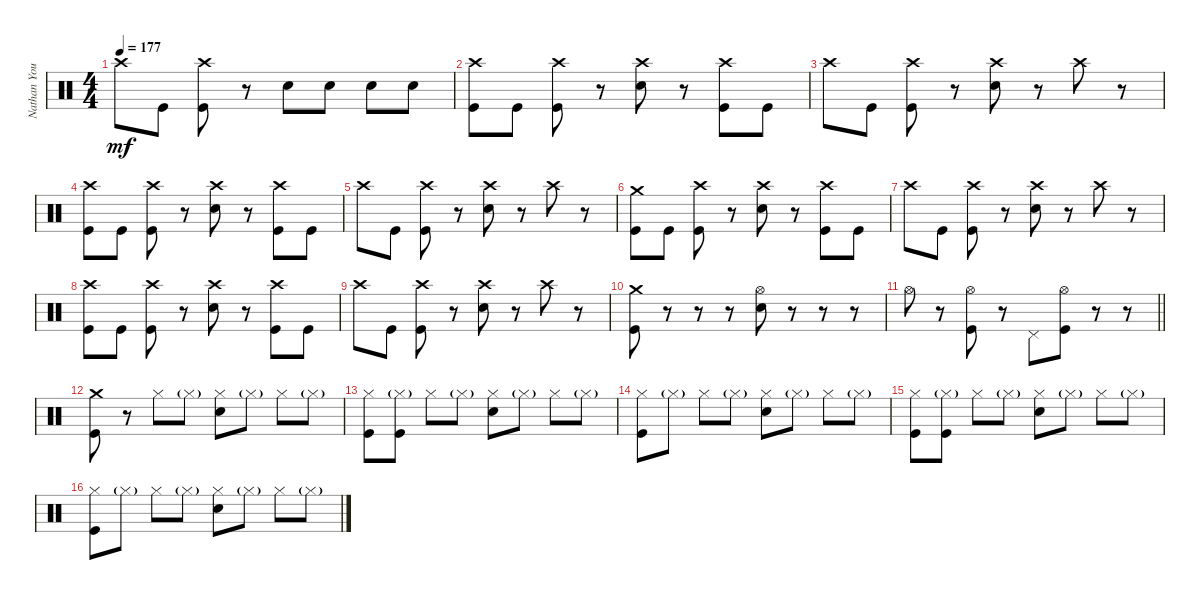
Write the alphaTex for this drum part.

\track ("Nathan Young" "Nathan You") {instrument percussion}
\staff {score}
\articulation defaults
\ts (4 4)
\tempo 177
\clef neutral
\ks c "Crash high (hit)".8{dy mf} "Kick (hit)".8
("Crash high (hit)" "Kick (hit)").8 r.8 "Snare (hit) 2".8 "Snare (hit) 2".8 "Snare (hit) 2".8 "Snare (hit) 2".8 |
("Crash high (hit)" "Kick (hit)").8 "Kick (hit)".8 ("Crash high (hit)" "Kick (hit)").8 r.8 ("Crash high (hit)" "Snare (hit) 2").8 r.8 ("Crash high (hit)" "Kick (hit)").8 "Kick (hit)".8 |
"Crash high (hit)".8 "Kick (hit)".8 ("Crash high (hit)" "Kick (hit)").8 r.8 ("Crash high (hit)" "Snare (hit) 2").8 r.8 "Crash high (hit)".8 r.8 |
("Crash high (hit)" "Kick (hit)").8 "Kick (hit)".8 ("Crash high (hit)" "Kick (hit)").8 r.8 ("Crash high (hit)" "Snare (hit) 2").8 r.8 ("Crash high (hit)" "Kick (hit)").8 "Kick (hit)".8 |
"Crash high (hit)".8 "Kick (hit)".8 ("Crash high (hit)" "Kick (hit)").8 r.8 ("Crash high (hit)" "Snare (hit) 2").8 r.8 "Crash high (hit)".8 r.8 |
("Crash medium (hit)" "Kick (hit)").8 "Kick (hit)".8 ("Crash high (hit)" "Kick (hit)").8 r.8 ("Crash high (hit)" "Snare (hit) 2").8 r.8 ("Crash high (hit)" "Kick (hit)").8 "Kick (hit)".8 |
"Crash high (hit)".8 "Kick (hit)".8 ("Crash high (hit)" "Kick (hit)").8 r.8 ("Crash high (hit)" "Snare (hit) 2").8 r.8 "Crash high (hit)".8 r.8 |
("Crash high (hit)" "Kick (hit)").8 "Kick (hit)".8 ("Crash high (hit)" "Kick (hit)").8 r.8 ("Crash high (hit)" "Snare (hit) 2").8 r.8 ("Crash high (hit)" "Kick (hit)").8 "Kick (hit)".8 |
"Crash high (hit)".8 "Kick (hit)".8 ("Crash high (hit)" "Kick (hit)").8 r.8 ("Crash high (hit)" "Snare (hit) 2").8 r.8 "Crash high (hit)".8 r.8 |
("Crash medium (hit)" "Kick (hit)").8 r.8 r.8 r.8 ("Hi-Hat (open)" "Snare (hit) 2").8 r.8 r.8 r.8 |
\barLineRight lightlight "Hi-Hat (open)".8
r.8 ("Hi-Hat (open)" "Kick (hit)").8 r.8 "Pedal Hi-Hat (hit)".8 ("Hi-Hat (open)" "Kick (hit)").8 r.8 r.8 |
("Crash medium (hit)" "Kick (hit)").8 r.8 "Hi-Hat (closed)".8 "Hi-Hat (closed)"{g}.8 ("Hi-Hat (closed)" "Snare (hit) 2").8 "Hi-Hat (closed)"{g}.8 "Hi-Hat (closed)".8 "Hi-Hat (closed)"{g}.8 |
("Hi-Hat (closed)" "Kick (hit)").8 ("Hi-Hat (closed)"{g} "Kick (hit)").8 "Hi-Hat (closed)".8 "Hi-Hat (closed)"{g}.8 ("Hi-Hat (closed)" "Snare (hit) 2").8 "Hi-Hat (closed)"{g}.8 "Hi-Hat (closed)".8 "Hi-Hat (closed)"{g}.8 |
("Hi-Hat (closed)" "Kick (hit)").8 "Hi-Hat (closed)"{g}.8 "Hi-Hat (closed)".8 "Hi-Hat (closed)"{g}.8 ("Hi-Hat (closed)" "Snare (hit) 2").8 "Hi-Hat (closed)"{g}.8 "Hi-Hat (closed)".8 "Hi-Hat (closed)"{g}.8 |
("Hi-Hat (closed)" "Kick (hit)").8 ("Hi-Hat (closed)"{g} "Kick (hit)").8 "Hi-Hat (closed)".8 "Hi-Hat (closed)"{g}.8 ("Hi-Hat (closed)" "Snare (hit) 2").8 "Hi-Hat (closed)"{g}.8 "Hi-Hat (closed)".8 "Hi-Hat (closed)"{g}.8 |
("Hi-Hat (closed)" "Kick (hit)").8 "Hi-Hat (closed)"{g}.8 "Hi-Hat (closed)".8 "Hi-Hat (closed)"{g}.8 ("Hi-Hat (closed)" "Snare (hit) 2").8 "Hi-Hat (closed)"{g}.8 "Hi-Hat (closed)".8 "Hi-Hat (closed)"{g}.8
